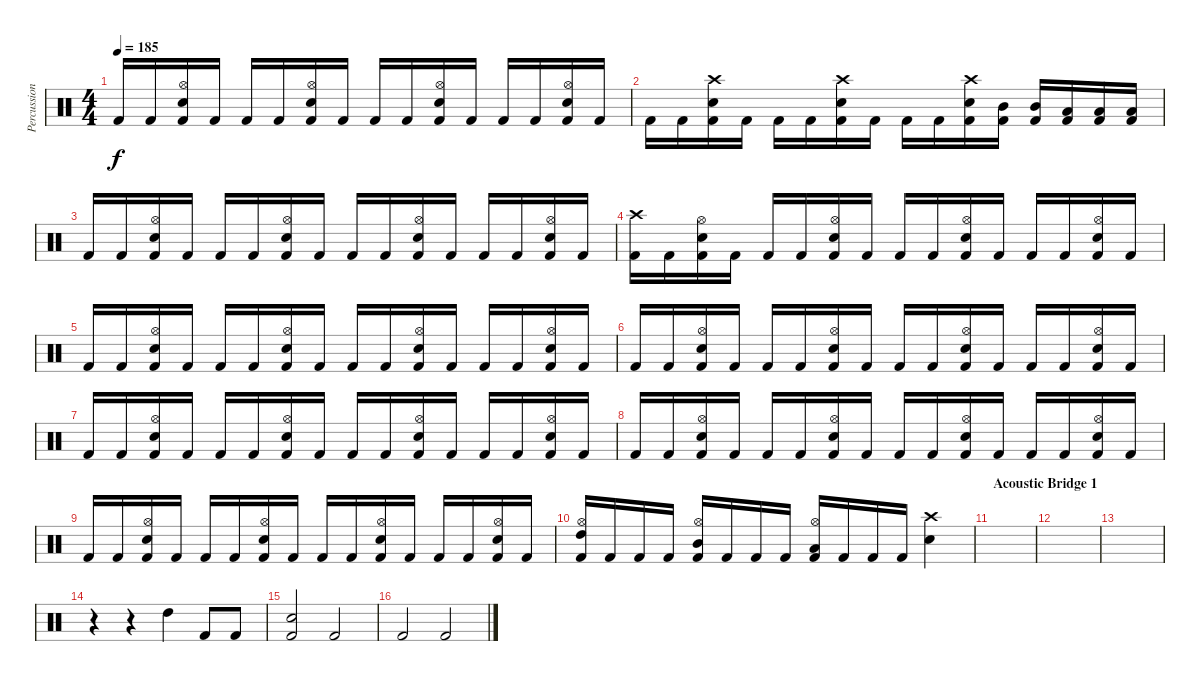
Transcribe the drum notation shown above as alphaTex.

\track ("Percussions" "Percussion") {instrument percussion}
\staff {score}
\articulation defaults
\ts (4 4)
\tempo 185
\clef neutral
\ks c "Kick (hit) 2".16{dy f} "Kick (hit) 2".16
("Hi-Hat (open)" "Snare (hit) 2" "Kick (hit) 2").16 "Kick (hit) 2".16 "Kick (hit) 2".16 "Kick (hit) 2".16 ("Hi-Hat (open)" "Snare (hit) 2" "Kick (hit) 2").16 "Kick (hit) 2".16 "Kick (hit) 2".16 "Kick (hit) 2".16 ("Hi-Hat (open)" "Snare (hit) 2" "Kick (hit) 2").16 "Kick (hit) 2".16 "Kick (hit) 2".16 "Kick (hit) 2".16 ("Hi-Hat (open)" "Snare (hit) 2" "Kick (hit) 2").16 "Kick (hit) 2".16 |
"Kick (hit) 2".16 "Kick (hit) 2".16 ("Crash high (hit)" "Snare (hit) 2" "Kick (hit) 2").16 "Kick (hit) 2".16 "Kick (hit) 2".16 "Kick (hit) 2".16 ("Crash high (hit)" "Snare (hit) 2" "Kick (hit) 2").16 "Kick (hit) 2".16 "Kick (hit) 2".16 "Kick (hit) 2".16 ("Crash high (hit)" "Snare (hit) 2" "Kick (hit) 2").16 ("Mid Tom (hit)" "Kick (hit) 2").16 ("Mid Tom (hit)" "Kick (hit) 2").16 ("Low Tom (hit)" "Kick (hit) 2").16 ("Low Tom (hit)" "Kick (hit) 2").16 ("Low Tom (hit)" "Kick (hit) 2").16 |
"Kick (hit) 2".16 "Kick (hit) 2".16 ("Hi-Hat (open)" "Snare (hit) 2" "Kick (hit) 2").16 "Kick (hit) 2".16 "Kick (hit) 2".16 "Kick (hit) 2".16 ("Hi-Hat (open)" "Snare (hit) 2" "Kick (hit) 2").16 "Kick (hit) 2".16 "Kick (hit) 2".16 "Kick (hit) 2".16 ("Hi-Hat (open)" "Snare (hit) 2" "Kick (hit) 2").16 "Kick (hit) 2".16 "Kick (hit) 2".16 "Kick (hit) 2".16 ("Hi-Hat (open)" "Snare (hit) 2" "Kick (hit) 2").16 "Kick (hit) 2".16 |
("Crash high (hit)" "Kick (hit) 2").16 "Kick (hit) 2".16 ("Hi-Hat (open)" "Snare (hit) 2" "Kick (hit) 2").16 "Kick (hit) 2".16 "Kick (hit) 2".16 "Kick (hit) 2".16 ("Hi-Hat (open)" "Snare (hit) 2" "Kick (hit) 2").16 "Kick (hit) 2".16 "Kick (hit) 2".16 "Kick (hit) 2".16 ("Hi-Hat (open)" "Snare (hit) 2" "Kick (hit) 2").16 "Kick (hit) 2".16 "Kick (hit) 2".16 "Kick (hit) 2".16 ("Hi-Hat (open)" "Snare (hit) 2" "Kick (hit) 2").16 "Kick (hit) 2".16 |
"Kick (hit) 2".16 "Kick (hit) 2".16 ("Hi-Hat (open)" "Snare (hit) 2" "Kick (hit) 2").16 "Kick (hit) 2".16 "Kick (hit) 2".16 "Kick (hit) 2".16 ("Hi-Hat (open)" "Snare (hit) 2" "Kick (hit) 2").16 "Kick (hit) 2".16 "Kick (hit) 2".16 "Kick (hit) 2".16 ("Hi-Hat (open)" "Snare (hit) 2" "Kick (hit) 2").16 "Kick (hit) 2".16 "Kick (hit) 2".16 "Kick (hit) 2".16 ("Hi-Hat (open)" "Snare (hit) 2" "Kick (hit) 2").16 "Kick (hit) 2".16 |
"Kick (hit) 2".16 "Kick (hit) 2".16 ("Hi-Hat (open)" "Snare (hit) 2" "Kick (hit) 2").16 "Kick (hit) 2".16 "Kick (hit) 2".16 "Kick (hit) 2".16 ("Hi-Hat (open)" "Snare (hit) 2" "Kick (hit) 2").16 "Kick (hit) 2".16 "Kick (hit) 2".16 "Kick (hit) 2".16 ("Hi-Hat (open)" "Snare (hit) 2" "Kick (hit) 2").16 "Kick (hit) 2".16 "Kick (hit) 2".16 "Kick (hit) 2".16 ("Hi-Hat (open)" "Snare (hit) 2" "Kick (hit) 2").16 "Kick (hit) 2".16 |
"Kick (hit) 2".16 "Kick (hit) 2".16 ("Hi-Hat (open)" "Snare (hit) 2" "Kick (hit) 2").16 "Kick (hit) 2".16 "Kick (hit) 2".16 "Kick (hit) 2".16 ("Hi-Hat (open)" "Snare (hit) 2" "Kick (hit) 2").16 "Kick (hit) 2".16 "Kick (hit) 2".16 "Kick (hit) 2".16 ("Hi-Hat (open)" "Snare (hit) 2" "Kick (hit) 2").16 "Kick (hit) 2".16 "Kick (hit) 2".16 "Kick (hit) 2".16 ("Hi-Hat (open)" "Snare (hit) 2" "Kick (hit) 2").16 "Kick (hit) 2".16 |
"Kick (hit) 2".16 "Kick (hit) 2".16 ("Hi-Hat (open)" "Snare (hit) 2" "Kick (hit) 2").16 "Kick (hit) 2".16 "Kick (hit) 2".16 "Kick (hit) 2".16 ("Hi-Hat (open)" "Snare (hit) 2" "Kick (hit) 2").16 "Kick (hit) 2".16 "Kick (hit) 2".16 "Kick (hit) 2".16 ("Hi-Hat (open)" "Snare (hit) 2" "Kick (hit) 2").16 "Kick (hit) 2".16 "Kick (hit) 2".16 "Kick (hit) 2".16 ("Hi-Hat (open)" "Snare (hit) 2" "Kick (hit) 2").16 "Kick (hit) 2".16 |
"Kick (hit) 2".16 "Kick (hit) 2".16 ("Hi-Hat (open)" "Snare (hit) 2" "Kick (hit) 2").16 "Kick (hit) 2".16 "Kick (hit) 2".16 "Kick (hit) 2".16 ("Hi-Hat (open)" "Snare (hit) 2" "Kick (hit) 2").16 "Kick (hit) 2".16 "Kick (hit) 2".16 "Kick (hit) 2".16 ("Hi-Hat (open)" "Snare (hit) 2" "Kick (hit) 2").16 "Kick (hit) 2".16 "Kick (hit) 2".16 "Kick (hit) 2".16 ("Hi-Hat (open)" "Snare (hit) 2" "Kick (hit) 2").16 "Kick (hit) 2".16 |
("Hi-Hat (open)" "High Tom (hit)" "Kick (hit) 2").16 "Kick (hit) 2".16 "Kick (hit) 2".16 "Kick (hit) 2".16 ("Hi-Hat (open)" "Mid Tom (hit)" "Kick (hit) 2").16 "Kick (hit) 2".16 "Kick (hit) 2".16 "Kick (hit) 2".16 ("Hi-Hat (open)" "Low Tom (hit)" "Kick (hit) 2").16 "Kick (hit) 2".16 "Kick (hit) 2".16 "Kick (hit) 2".16 ("Crash high (hit)" "Snare (hit) 2").4 |
\section ("" "Acoustic Bridge 1")
|
|
|
r.4 r.4 "High Tom (hit)".4 "Kick (hit) 2".8 "Kick (hit) 2".8 |
("Snare (hit) 2" "Kick (hit) 2").2 "Kick (hit) 2".2 |
"Kick (hit) 2".2 "Kick (hit) 2".2
